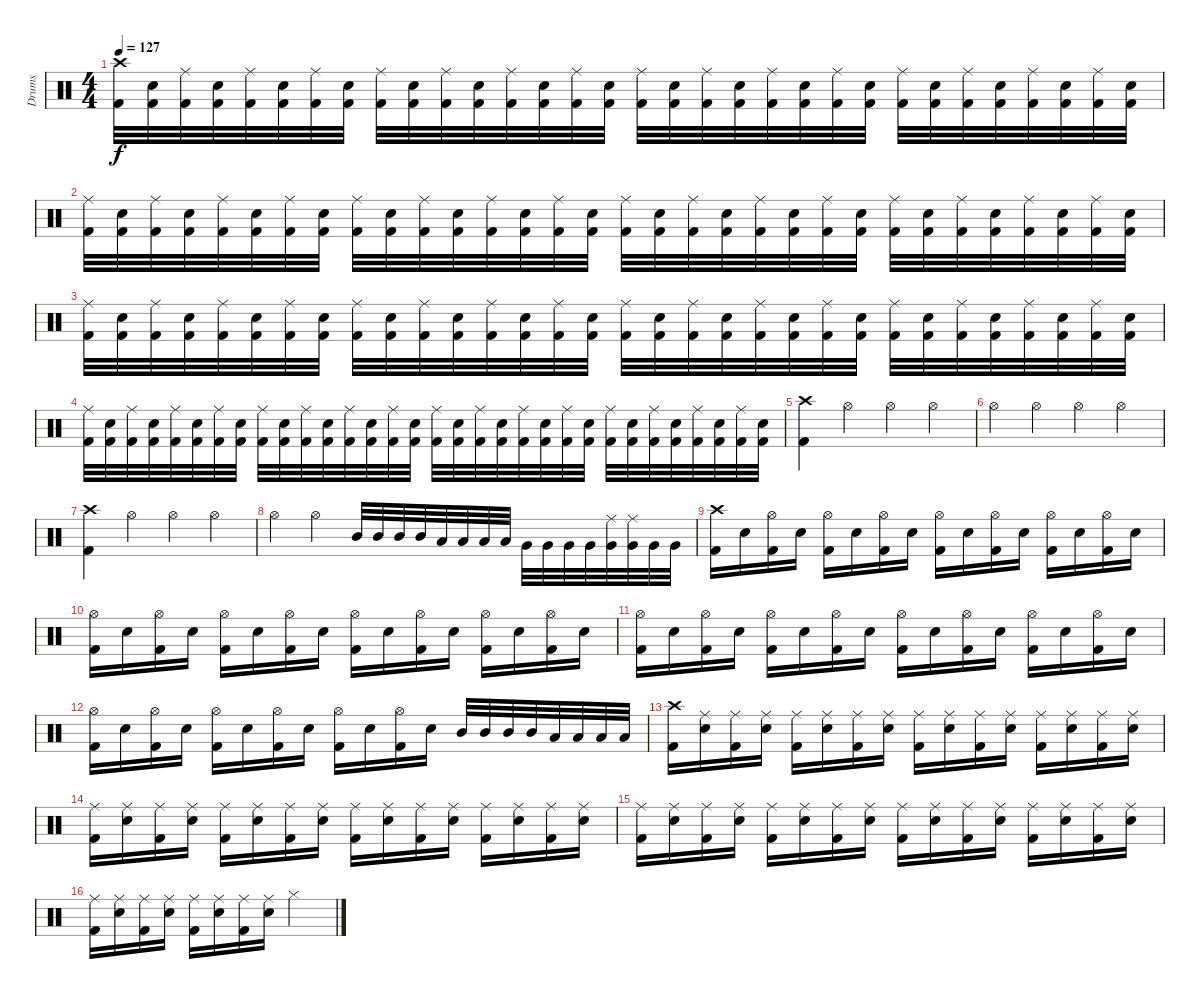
\track ("Drums" "Drums") {instrument percussion}
\staff {score}
\articulation defaults
\ts (4 4)
\tempo 127
\clef neutral
\ks c
("Crash high (hit)" "Kick (hit) 2").32{dy f} ("Electric Snare (hit)" "Kick (hit) 2").32 ("Ride (middle)" "Kick (hit) 2").32 ("Electric Snare (hit)" "Kick (hit) 2").32 ("Ride (middle)" "Kick (hit) 2").32 ("Electric Snare (hit)" "Kick (hit) 2").32 ("Ride (middle)" "Kick (hit) 2").32 ("Electric Snare (hit)" "Kick (hit) 2").32 ("Ride (middle)" "Kick (hit) 2").32 ("Electric Snare (hit)" "Kick (hit) 2").32 ("Ride (middle)" "Kick (hit) 2").32 ("Electric Snare (hit)" "Kick (hit) 2").32 ("Ride (middle)" "Kick (hit) 2").32 ("Electric Snare (hit)" "Kick (hit) 2").32 ("Ride (middle)" "Kick (hit) 2").32 ("Electric Snare (hit)" "Kick (hit) 2").32 ("Ride (middle)" "Kick (hit) 2").32 ("Electric Snare (hit)" "Kick (hit) 2").32 ("Ride (middle)" "Kick (hit) 2").32 ("Electric Snare (hit)" "Kick (hit) 2").32 ("Ride (middle)" "Kick (hit) 2").32 ("Electric Snare (hit)" "Kick (hit) 2").32 ("Ride (middle)" "Kick (hit) 2").32 ("Electric Snare (hit)" "Kick (hit) 2").32 ("Ride (middle)" "Kick (hit) 2").32 ("Electric Snare (hit)" "Kick (hit) 2").32 ("Ride (middle)" "Kick (hit) 2").32 ("Electric Snare (hit)" "Kick (hit) 2").32 ("Ride (middle)" "Kick (hit) 2").32 ("Electric Snare (hit)" "Kick (hit) 2").32 ("Ride (middle)" "Kick (hit) 2").32 ("Electric Snare (hit)" "Kick (hit) 2").32 |
("Ride (middle)" "Kick (hit) 2").32 ("Electric Snare (hit)" "Kick (hit) 2").32 ("Ride (middle)" "Kick (hit) 2").32 ("Electric Snare (hit)" "Kick (hit) 2").32 ("Ride (middle)" "Kick (hit) 2").32 ("Electric Snare (hit)" "Kick (hit) 2").32 ("Ride (middle)" "Kick (hit) 2").32 ("Electric Snare (hit)" "Kick (hit) 2").32 ("Ride (middle)" "Kick (hit) 2").32 ("Electric Snare (hit)" "Kick (hit) 2").32 ("Ride (middle)" "Kick (hit) 2").32 ("Electric Snare (hit)" "Kick (hit) 2").32 ("Ride (middle)" "Kick (hit) 2").32 ("Electric Snare (hit)" "Kick (hit) 2").32 ("Ride (middle)" "Kick (hit) 2").32 ("Electric Snare (hit)" "Kick (hit) 2").32 ("Ride (middle)" "Kick (hit) 2").32 ("Electric Snare (hit)" "Kick (hit) 2").32 ("Ride (middle)" "Kick (hit) 2").32 ("Electric Snare (hit)" "Kick (hit) 2").32 ("Ride (middle)" "Kick (hit) 2").32 ("Electric Snare (hit)" "Kick (hit) 2").32 ("Ride (middle)" "Kick (hit) 2").32 ("Electric Snare (hit)" "Kick (hit) 2").32 ("Ride (middle)" "Kick (hit) 2").32 ("Electric Snare (hit)" "Kick (hit) 2").32 ("Ride (middle)" "Kick (hit) 2").32 ("Electric Snare (hit)" "Kick (hit) 2").32 ("Ride (middle)" "Kick (hit) 2").32 ("Electric Snare (hit)" "Kick (hit) 2").32 ("Ride (middle)" "Kick (hit) 2").32 ("Electric Snare (hit)" "Kick (hit) 2").32 |
("Ride (middle)" "Kick (hit) 2").32 ("Electric Snare (hit)" "Kick (hit) 2").32 ("Ride (middle)" "Kick (hit) 2").32 ("Electric Snare (hit)" "Kick (hit) 2").32 ("Ride (middle)" "Kick (hit) 2").32 ("Electric Snare (hit)" "Kick (hit) 2").32 ("Ride (middle)" "Kick (hit) 2").32 ("Electric Snare (hit)" "Kick (hit) 2").32 ("Ride (middle)" "Kick (hit) 2").32 ("Electric Snare (hit)" "Kick (hit) 2").32 ("Ride (middle)" "Kick (hit) 2").32 ("Electric Snare (hit)" "Kick (hit) 2").32 ("Ride (middle)" "Kick (hit) 2").32 ("Electric Snare (hit)" "Kick (hit) 2").32 ("Ride (middle)" "Kick (hit) 2").32 ("Electric Snare (hit)" "Kick (hit) 2").32 ("Ride (middle)" "Kick (hit) 2").32 ("Electric Snare (hit)" "Kick (hit) 2").32 ("Ride (middle)" "Kick (hit) 2").32 ("Electric Snare (hit)" "Kick (hit) 2").32 ("Ride (middle)" "Kick (hit) 2").32 ("Electric Snare (hit)" "Kick (hit) 2").32 ("Ride (middle)" "Kick (hit) 2").32 ("Electric Snare (hit)" "Kick (hit) 2").32 ("Ride (middle)" "Kick (hit) 2").32 ("Electric Snare (hit)" "Kick (hit) 2").32 ("Ride (middle)" "Kick (hit) 2").32 ("Electric Snare (hit)" "Kick (hit) 2").32 ("Ride (middle)" "Kick (hit) 2").32 ("Electric Snare (hit)" "Kick (hit) 2").32 ("Ride (middle)" "Kick (hit) 2").32 ("Electric Snare (hit)" "Kick (hit) 2").32 |
("Ride (middle)" "Kick (hit) 2").32 ("Electric Snare (hit)" "Kick (hit) 2").32 ("Ride (middle)" "Kick (hit) 2").32 ("Electric Snare (hit)" "Kick (hit) 2").32 ("Ride (middle)" "Kick (hit) 2").32 ("Electric Snare (hit)" "Kick (hit) 2").32 ("Ride (middle)" "Kick (hit) 2").32 ("Electric Snare (hit)" "Kick (hit) 2").32 ("Ride (middle)" "Kick (hit) 2").32 ("Electric Snare (hit)" "Kick (hit) 2").32 ("Ride (middle)" "Kick (hit) 2").32 ("Electric Snare (hit)" "Kick (hit) 2").32 ("Ride (middle)" "Kick (hit) 2").32 ("Electric Snare (hit)" "Kick (hit) 2").32 ("Ride (middle)" "Kick (hit) 2").32 ("Electric Snare (hit)" "Kick (hit) 2").32 ("Ride (middle)" "Kick (hit) 2").32 ("Electric Snare (hit)" "Kick (hit) 2").32 ("Ride (middle)" "Kick (hit) 2").32 ("Electric Snare (hit)" "Kick (hit) 2").32 ("Ride (middle)" "Kick (hit) 2").32 ("Electric Snare (hit)" "Kick (hit) 2").32 ("Ride (middle)" "Kick (hit) 2").32 ("Electric Snare (hit)" "Kick (hit) 2").32 ("Ride (middle)" "Kick (hit) 2").32 ("Electric Snare (hit)" "Kick (hit) 2").32 ("Ride (middle)" "Kick (hit) 2").32 ("Electric Snare (hit)" "Kick (hit) 2").32 ("Ride (middle)" "Kick (hit) 2").32 ("Electric Snare (hit)" "Kick (hit) 2").32 ("Ride (middle)" "Kick (hit) 2").32 ("Electric Snare (hit)" "Kick (hit) 2").32 |
("Crash high (hit)" "Kick (hit) 2").4 "Hi-Hat (open)".4 "Hi-Hat (open)".4 "Hi-Hat (open)".4 |
"Hi-Hat (open)".4 "Hi-Hat (open)".4 "Hi-Hat (open)".4 "Hi-Hat (open)".4 |
("Crash high (hit)" "Kick (hit) 2").4 "Hi-Hat (open)".4 "Hi-Hat (open)".4 "Hi-Hat (open)".4 |
"Hi-Hat (open)".4 "Hi-Hat (open)".4 "Mid Tom (hit)".32 "Mid Tom (hit)".32 "Mid Tom (hit)".32 "Mid Tom (hit)".32 "Low Tom (hit)".32 "Low Tom (hit)".32 "Low Tom (hit)".32 "Low Tom (hit)".32 "Very Low Tom (hit)".32 "Very Low Tom (hit)".32 "Very Low Tom (hit)".32 "Very Low Tom (hit)".32 ("Ride (middle)" "Very Low Tom (hit)").32 ("Ride (middle)" "Very Low Tom (hit)").32 "Very Low Tom (hit)".32 "Very Low Tom (hit)".32 |
("Crash high (hit)" "Kick (hit) 2").16 "Electric Snare (hit)".16 ("Hi-Hat (open)" "Kick (hit) 2").16 "Electric Snare (hit)".16 ("Hi-Hat (open)" "Kick (hit) 2").16 "Electric Snare (hit)".16 ("Hi-Hat (open)" "Kick (hit) 2").16 "Electric Snare (hit)".16 ("Hi-Hat (open)" "Kick (hit) 2").16 "Electric Snare (hit)".16 ("Hi-Hat (open)" "Kick (hit) 2").16 "Electric Snare (hit)".16 ("Hi-Hat (open)" "Kick (hit) 2").16 "Electric Snare (hit)".16 ("Hi-Hat (open)" "Kick (hit) 2").16 "Electric Snare (hit)".16 |
("Hi-Hat (open)" "Kick (hit) 2").16 "Electric Snare (hit)".16 ("Hi-Hat (open)" "Kick (hit) 2").16 "Electric Snare (hit)".16 ("Hi-Hat (open)" "Kick (hit) 2").16 "Electric Snare (hit)".16 ("Hi-Hat (open)" "Kick (hit) 2").16 "Electric Snare (hit)".16 ("Hi-Hat (open)" "Kick (hit) 2").16 "Electric Snare (hit)".16 ("Hi-Hat (open)" "Kick (hit) 2").16 "Electric Snare (hit)".16 ("Hi-Hat (open)" "Kick (hit) 2").16 "Electric Snare (hit)".16 ("Hi-Hat (open)" "Kick (hit) 2").16 "Electric Snare (hit)".16 |
("Hi-Hat (open)" "Kick (hit) 2").16 "Electric Snare (hit)".16 ("Hi-Hat (open)" "Kick (hit) 2").16 "Electric Snare (hit)".16 ("Hi-Hat (open)" "Kick (hit) 2").16 "Electric Snare (hit)".16 ("Hi-Hat (open)" "Kick (hit) 2").16 "Electric Snare (hit)".16 ("Hi-Hat (open)" "Kick (hit) 2").16 "Electric Snare (hit)".16 ("Hi-Hat (open)" "Kick (hit) 2").16 "Electric Snare (hit)".16 ("Hi-Hat (open)" "Kick (hit) 2").16 "Electric Snare (hit)".16 ("Hi-Hat (open)" "Kick (hit) 2").16 "Electric Snare (hit)".16 |
("Hi-Hat (open)" "Kick (hit) 2").16 "Electric Snare (hit)".16 ("Hi-Hat (open)" "Kick (hit) 2").16 "Electric Snare (hit)".16 ("Hi-Hat (open)" "Kick (hit) 2").16 "Electric Snare (hit)".16 ("Hi-Hat (open)" "Kick (hit) 2").16 "Electric Snare (hit)".16 ("Hi-Hat (open)" "Kick (hit) 2").16 "Electric Snare (hit)".16 ("Hi-Hat (open)" "Kick (hit) 2").16 "Electric Snare (hit)".16 "Mid Tom (hit)".32 "Mid Tom (hit)".32 "Mid Tom (hit)".32 "Mid Tom (hit)".32 "Low Tom (hit)".32 "Low Tom (hit)".32 "Low Tom (hit)".32 "Low Tom (hit)".32 |
("Crash high (hit)" "Kick (hit) 2").16 ("Ride (middle)" "Electric Snare (hit)").16 ("Ride (middle)" "Kick (hit) 2").16 ("Ride (middle)" "Electric Snare (hit)").16 ("Ride (middle)" "Kick (hit) 2").16 ("Ride (middle)" "Electric Snare (hit)").16 ("Ride (middle)" "Kick (hit) 2").16 ("Ride (middle)" "Electric Snare (hit)").16 ("Ride (middle)" "Kick (hit) 2").16 ("Ride (middle)" "Electric Snare (hit)").16 ("Ride (middle)" "Kick (hit) 2").16 ("Ride (middle)" "Electric Snare (hit)").16 ("Ride (middle)" "Kick (hit) 2").16 ("Ride (middle)" "Electric Snare (hit)").16 ("Ride (middle)" "Kick (hit) 2").16 ("Ride (middle)" "Electric Snare (hit)").16 |
("Ride (middle)" "Kick (hit) 2").16 ("Ride (middle)" "Electric Snare (hit)").16 ("Ride (middle)" "Kick (hit) 2").16 ("Ride (middle)" "Electric Snare (hit)").16 ("Ride (middle)" "Kick (hit) 2").16 ("Ride (middle)" "Electric Snare (hit)").16 ("Ride (middle)" "Kick (hit) 2").16 ("Ride (middle)" "Electric Snare (hit)").16 ("Ride (middle)" "Kick (hit) 2").16 ("Ride (middle)" "Electric Snare (hit)").16 ("Ride (middle)" "Kick (hit) 2").16 ("Ride (middle)" "Electric Snare (hit)").16 ("Ride (middle)" "Kick (hit) 2").16 ("Ride (middle)" "Electric Snare (hit)").16 ("Ride (middle)" "Kick (hit) 2").16 ("Ride (middle)" "Electric Snare (hit)").16 |
("Ride (middle)" "Kick (hit) 2").16 ("Ride (middle)" "Electric Snare (hit)").16 ("Ride (middle)" "Kick (hit) 2").16 ("Ride (middle)" "Electric Snare (hit)").16 ("Ride (middle)" "Kick (hit) 2").16 ("Ride (middle)" "Electric Snare (hit)").16 ("Ride (middle)" "Kick (hit) 2").16 ("Ride (middle)" "Electric Snare (hit)").16 ("Ride (middle)" "Kick (hit) 2").16 ("Ride (middle)" "Electric Snare (hit)").16 ("Ride (middle)" "Kick (hit) 2").16 ("Ride (middle)" "Electric Snare (hit)").16 ("Ride (middle)" "Kick (hit) 2").16 ("Ride (middle)" "Electric Snare (hit)").16 ("Ride (middle)" "Kick (hit) 2").16 ("Ride (middle)" "Electric Snare (hit)").16 |
("Ride (middle)" "Kick (hit) 2").16 ("Ride (middle)" "Electric Snare (hit)").16 ("Ride (middle)" "Kick (hit) 2").16 ("Ride (middle)" "Electric Snare (hit)").16 ("Ride (middle)" "Kick (hit) 2").16 ("Ride (middle)" "Electric Snare (hit)").16 ("Ride (middle)" "Kick (hit) 2").16 ("Ride (middle)" "Electric Snare (hit)").16 "Hi-Hat (closed)".2
